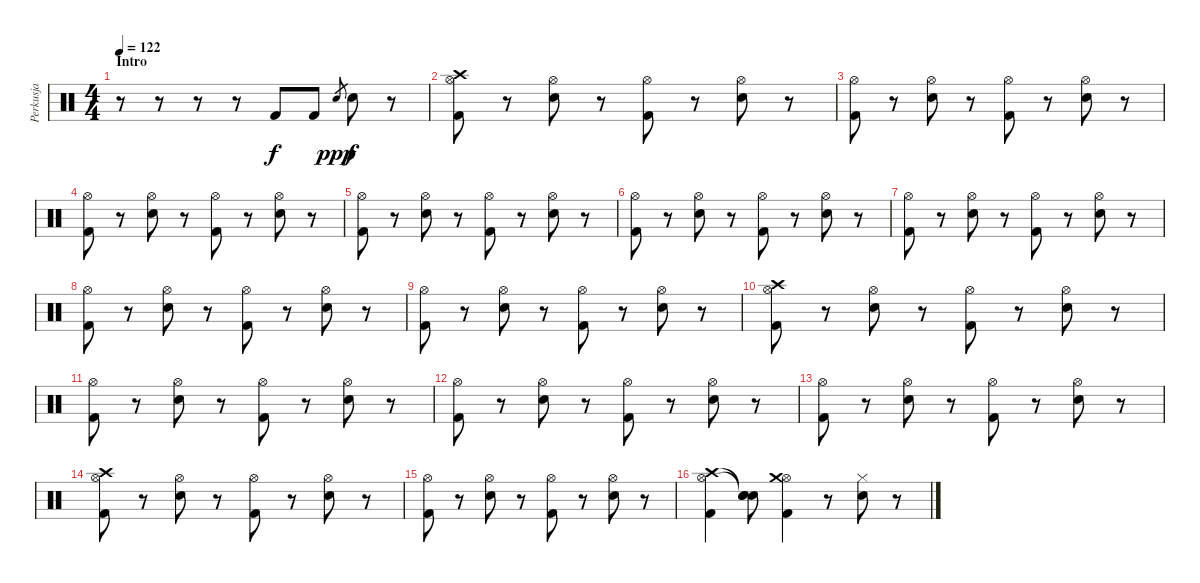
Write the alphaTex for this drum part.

\track ("Perkusja" "Perkusja") {instrument percussion}
\staff {score}
\articulation defaults
\ts (4 4)
\section ("" "Intro")
\tempo 122
\clef neutral
\ks c
r.8{dy f} r.8 r.8 r.8 "Kick (hit) 2".8 "Kick (hit) 2".8 "Snare (hit) 2".8{gr dy ppp} "Snare (hit) 2".8{dy f} r.8 |
("Kick (hit) 2" "Hi-Hat (open)" "Crash high (hit)").8 r.8 ("Snare (hit) 2" "Hi-Hat (open)").8 r.8 ("Kick (hit) 2" "Hi-Hat (open)").8 r.8 ("Snare (hit) 2" "Hi-Hat (open)").8 r.8 |
("Kick (hit) 2" "Hi-Hat (open)").8 r.8 ("Snare (hit) 2" "Hi-Hat (open)").8 r.8 ("Kick (hit) 2" "Hi-Hat (open)").8 r.8 ("Snare (hit) 2" "Hi-Hat (open)").8 r.8 |
("Kick (hit) 2" "Hi-Hat (open)").8 r.8 ("Snare (hit) 2" "Hi-Hat (open)").8 r.8 ("Kick (hit) 2" "Hi-Hat (open)").8 r.8 ("Snare (hit) 2" "Hi-Hat (open)").8 r.8 |
("Kick (hit) 2" "Hi-Hat (open)").8 r.8 ("Snare (hit) 2" "Hi-Hat (open)").8 r.8 ("Kick (hit) 2" "Hi-Hat (open)").8 r.8 ("Snare (hit) 2" "Hi-Hat (open)").8 r.8 |
("Kick (hit) 2" "Hi-Hat (open)").8 r.8 ("Snare (hit) 2" "Hi-Hat (open)").8 r.8 ("Kick (hit) 2" "Hi-Hat (open)").8 r.8 ("Snare (hit) 2" "Hi-Hat (open)").8 r.8 |
("Kick (hit) 2" "Hi-Hat (open)").8 r.8 ("Snare (hit) 2" "Hi-Hat (open)").8 r.8 ("Kick (hit) 2" "Hi-Hat (open)").8 r.8 ("Snare (hit) 2" "Hi-Hat (open)").8 r.8 |
("Kick (hit) 2" "Hi-Hat (open)").8 r.8 ("Snare (hit) 2" "Hi-Hat (open)").8 r.8 ("Kick (hit) 2" "Hi-Hat (open)").8 r.8 ("Snare (hit) 2" "Hi-Hat (open)").8 r.8 |
("Kick (hit) 2" "Hi-Hat (open)").8 r.8 ("Snare (hit) 2" "Hi-Hat (open)").8 r.8 ("Kick (hit) 2" "Hi-Hat (open)").8 r.8 ("Snare (hit) 2" "Hi-Hat (open)").8 r.8 |
("Kick (hit) 2" "Hi-Hat (open)" "Crash high (hit)").8 r.8 ("Snare (hit) 2" "Hi-Hat (open)").8 r.8 ("Kick (hit) 2" "Hi-Hat (open)").8 r.8 ("Snare (hit) 2" "Hi-Hat (open)").8 r.8 |
("Kick (hit) 2" "Hi-Hat (open)").8 r.8 ("Snare (hit) 2" "Hi-Hat (open)").8 r.8 ("Kick (hit) 2" "Hi-Hat (open)").8 r.8 ("Snare (hit) 2" "Hi-Hat (open)").8 r.8 |
("Kick (hit) 2" "Hi-Hat (open)").8 r.8 ("Snare (hit) 2" "Hi-Hat (open)").8 r.8 ("Kick (hit) 2" "Hi-Hat (open)").8 r.8 ("Snare (hit) 2" "Hi-Hat (open)").8 r.8 |
("Kick (hit) 2" "Hi-Hat (open)").8 r.8 ("Snare (hit) 2" "Hi-Hat (open)").8 r.8 ("Kick (hit) 2" "Hi-Hat (open)").8 r.8 ("Snare (hit) 2" "Hi-Hat (open)").8 r.8 |
("Kick (hit) 2" "Hi-Hat (open)" "Crash high (hit)").8 r.8 ("Snare (hit) 2" "Hi-Hat (open)").8 r.8 ("Kick (hit) 2" "Hi-Hat (open)").8 r.8 ("Snare (hit) 2" "Hi-Hat (open)").8 r.8 |
("Kick (hit) 2" "Hi-Hat (open)").8 r.8 ("Snare (hit) 2" "Hi-Hat (open)").8 r.8 ("Kick (hit) 2" "Hi-Hat (open)").8 r.8 ("Snare (hit) 2" "Hi-Hat (open)").8 r.8 |
("Kick (hit) 2" "Hi-Hat (open)" "Crash high (hit)").4 ("Snare (hit) 2" "Snare (hit)"{t} "Snare (hit)"{t}).8 ("Kick (hit) 2" "Hi-Hat (open)" "Crash medium (hit)").4 r.8 ("Snare (hit) 2" "Hi-Hat (closed)").8 r.8
